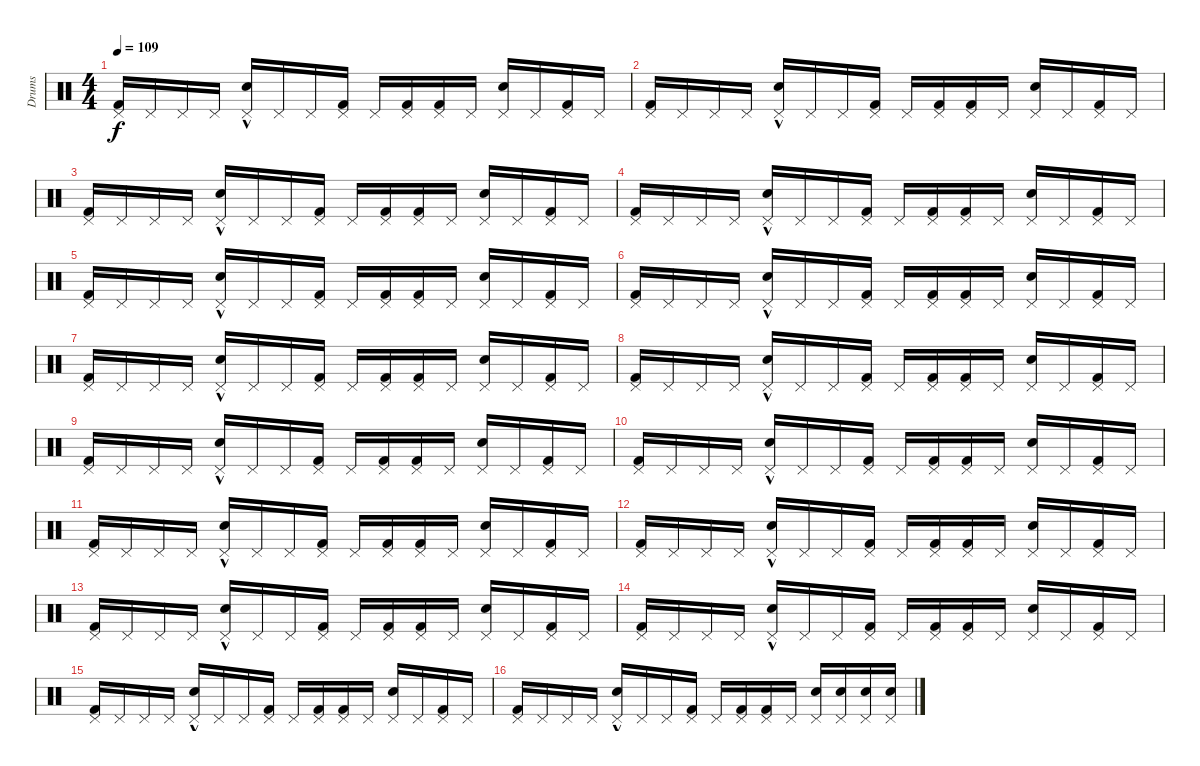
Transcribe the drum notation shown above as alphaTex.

\track ("Drums" "Drums") {instrument percussion}
\staff {score}
\articulation defaults
\ts (4 4)
\tempo 109
\clef neutral
\ks c
("Pedal Hi-Hat (hit)" "Kick (hit) 2").16{dy f} "Pedal Hi-Hat (hit)".16 "Pedal Hi-Hat (hit)".16 "Pedal Hi-Hat (hit)".16 ("Pedal Hi-Hat (hit)" "Snare (hit) 2"{hac}).16 "Pedal Hi-Hat (hit)".16 "Pedal Hi-Hat (hit)".16 ("Pedal Hi-Hat (hit)" "Kick (hit) 2").16 "Pedal Hi-Hat (hit)".16 ("Pedal Hi-Hat (hit)" "Kick (hit) 2").16 ("Pedal Hi-Hat (hit)" "Kick (hit) 2").16 "Pedal Hi-Hat (hit)".16 ("Pedal Hi-Hat (hit)" "Snare (hit) 2").16 "Pedal Hi-Hat (hit)".16 ("Pedal Hi-Hat (hit)" "Kick (hit) 2").16 "Pedal Hi-Hat (hit)".16 |
("Pedal Hi-Hat (hit)" "Kick (hit) 2").16 "Pedal Hi-Hat (hit)".16 "Pedal Hi-Hat (hit)".16 "Pedal Hi-Hat (hit)".16 ("Pedal Hi-Hat (hit)" "Snare (hit) 2"{hac}).16 "Pedal Hi-Hat (hit)".16 "Pedal Hi-Hat (hit)".16 ("Pedal Hi-Hat (hit)" "Kick (hit) 2").16 "Pedal Hi-Hat (hit)".16 ("Pedal Hi-Hat (hit)" "Kick (hit) 2").16 ("Pedal Hi-Hat (hit)" "Kick (hit) 2").16 "Pedal Hi-Hat (hit)".16 ("Pedal Hi-Hat (hit)" "Snare (hit) 2").16 "Pedal Hi-Hat (hit)".16 ("Pedal Hi-Hat (hit)" "Kick (hit) 2").16 "Pedal Hi-Hat (hit)".16 |
("Pedal Hi-Hat (hit)" "Kick (hit) 2").16 "Pedal Hi-Hat (hit)".16 "Pedal Hi-Hat (hit)".16 "Pedal Hi-Hat (hit)".16 ("Pedal Hi-Hat (hit)" "Snare (hit) 2"{hac}).16 "Pedal Hi-Hat (hit)".16 "Pedal Hi-Hat (hit)".16 ("Pedal Hi-Hat (hit)" "Kick (hit) 2").16 "Pedal Hi-Hat (hit)".16 ("Pedal Hi-Hat (hit)" "Kick (hit) 2").16 ("Pedal Hi-Hat (hit)" "Kick (hit) 2").16 "Pedal Hi-Hat (hit)".16 ("Pedal Hi-Hat (hit)" "Snare (hit) 2").16 "Pedal Hi-Hat (hit)".16 ("Pedal Hi-Hat (hit)" "Kick (hit) 2").16 "Pedal Hi-Hat (hit)".16 |
("Pedal Hi-Hat (hit)" "Kick (hit) 2").16 "Pedal Hi-Hat (hit)".16 "Pedal Hi-Hat (hit)".16 "Pedal Hi-Hat (hit)".16 ("Pedal Hi-Hat (hit)" "Snare (hit) 2"{hac}).16 "Pedal Hi-Hat (hit)".16 "Pedal Hi-Hat (hit)".16 ("Pedal Hi-Hat (hit)" "Kick (hit) 2").16 "Pedal Hi-Hat (hit)".16 ("Pedal Hi-Hat (hit)" "Kick (hit) 2").16 ("Pedal Hi-Hat (hit)" "Kick (hit) 2").16 "Pedal Hi-Hat (hit)".16 ("Pedal Hi-Hat (hit)" "Snare (hit) 2").16 "Pedal Hi-Hat (hit)".16 ("Pedal Hi-Hat (hit)" "Kick (hit) 2").16 "Pedal Hi-Hat (hit)".16 |
("Pedal Hi-Hat (hit)" "Kick (hit) 2").16 "Pedal Hi-Hat (hit)".16 "Pedal Hi-Hat (hit)".16 "Pedal Hi-Hat (hit)".16 ("Pedal Hi-Hat (hit)" "Snare (hit) 2"{hac}).16 "Pedal Hi-Hat (hit)".16 "Pedal Hi-Hat (hit)".16 ("Pedal Hi-Hat (hit)" "Kick (hit) 2").16 "Pedal Hi-Hat (hit)".16 ("Pedal Hi-Hat (hit)" "Kick (hit) 2").16 ("Pedal Hi-Hat (hit)" "Kick (hit) 2").16 "Pedal Hi-Hat (hit)".16 ("Pedal Hi-Hat (hit)" "Snare (hit) 2").16 "Pedal Hi-Hat (hit)".16 ("Pedal Hi-Hat (hit)" "Kick (hit) 2").16 "Pedal Hi-Hat (hit)".16 |
("Pedal Hi-Hat (hit)" "Kick (hit) 2").16 "Pedal Hi-Hat (hit)".16 "Pedal Hi-Hat (hit)".16 "Pedal Hi-Hat (hit)".16 ("Pedal Hi-Hat (hit)" "Snare (hit) 2"{hac}).16 "Pedal Hi-Hat (hit)".16 "Pedal Hi-Hat (hit)".16 ("Pedal Hi-Hat (hit)" "Kick (hit) 2").16 "Pedal Hi-Hat (hit)".16 ("Pedal Hi-Hat (hit)" "Kick (hit) 2").16 ("Pedal Hi-Hat (hit)" "Kick (hit) 2").16 "Pedal Hi-Hat (hit)".16 ("Pedal Hi-Hat (hit)" "Snare (hit) 2").16 "Pedal Hi-Hat (hit)".16 ("Pedal Hi-Hat (hit)" "Kick (hit) 2").16 "Pedal Hi-Hat (hit)".16 |
("Pedal Hi-Hat (hit)" "Kick (hit) 2").16 "Pedal Hi-Hat (hit)".16 "Pedal Hi-Hat (hit)".16 "Pedal Hi-Hat (hit)".16 ("Pedal Hi-Hat (hit)" "Snare (hit) 2"{hac}).16 "Pedal Hi-Hat (hit)".16 "Pedal Hi-Hat (hit)".16 ("Pedal Hi-Hat (hit)" "Kick (hit) 2").16 "Pedal Hi-Hat (hit)".16 ("Pedal Hi-Hat (hit)" "Kick (hit) 2").16 ("Pedal Hi-Hat (hit)" "Kick (hit) 2").16 "Pedal Hi-Hat (hit)".16 ("Pedal Hi-Hat (hit)" "Snare (hit) 2").16 "Pedal Hi-Hat (hit)".16 ("Pedal Hi-Hat (hit)" "Kick (hit) 2").16 "Pedal Hi-Hat (hit)".16 |
("Pedal Hi-Hat (hit)" "Kick (hit) 2").16 "Pedal Hi-Hat (hit)".16 "Pedal Hi-Hat (hit)".16 "Pedal Hi-Hat (hit)".16 ("Pedal Hi-Hat (hit)" "Snare (hit) 2"{hac}).16 "Pedal Hi-Hat (hit)".16 "Pedal Hi-Hat (hit)".16 ("Pedal Hi-Hat (hit)" "Kick (hit) 2").16 "Pedal Hi-Hat (hit)".16 ("Pedal Hi-Hat (hit)" "Kick (hit) 2").16 ("Pedal Hi-Hat (hit)" "Kick (hit) 2").16 "Pedal Hi-Hat (hit)".16 ("Pedal Hi-Hat (hit)" "Snare (hit) 2").16 "Pedal Hi-Hat (hit)".16 ("Pedal Hi-Hat (hit)" "Kick (hit) 2").16 "Pedal Hi-Hat (hit)".16 |
("Pedal Hi-Hat (hit)" "Kick (hit) 2").16 "Pedal Hi-Hat (hit)".16 "Pedal Hi-Hat (hit)".16 "Pedal Hi-Hat (hit)".16 ("Pedal Hi-Hat (hit)" "Snare (hit) 2"{hac}).16 "Pedal Hi-Hat (hit)".16 "Pedal Hi-Hat (hit)".16 ("Pedal Hi-Hat (hit)" "Kick (hit) 2").16 "Pedal Hi-Hat (hit)".16 ("Pedal Hi-Hat (hit)" "Kick (hit) 2").16 ("Pedal Hi-Hat (hit)" "Kick (hit) 2").16 "Pedal Hi-Hat (hit)".16 ("Pedal Hi-Hat (hit)" "Snare (hit) 2").16 "Pedal Hi-Hat (hit)".16 ("Pedal Hi-Hat (hit)" "Kick (hit) 2").16 "Pedal Hi-Hat (hit)".16 |
("Pedal Hi-Hat (hit)" "Kick (hit) 2").16 "Pedal Hi-Hat (hit)".16 "Pedal Hi-Hat (hit)".16 "Pedal Hi-Hat (hit)".16 ("Pedal Hi-Hat (hit)" "Snare (hit) 2"{hac}).16 "Pedal Hi-Hat (hit)".16 "Pedal Hi-Hat (hit)".16 ("Pedal Hi-Hat (hit)" "Kick (hit) 2").16 "Pedal Hi-Hat (hit)".16 ("Pedal Hi-Hat (hit)" "Kick (hit) 2").16 ("Pedal Hi-Hat (hit)" "Kick (hit) 2").16 "Pedal Hi-Hat (hit)".16 ("Pedal Hi-Hat (hit)" "Snare (hit) 2").16 "Pedal Hi-Hat (hit)".16 ("Pedal Hi-Hat (hit)" "Kick (hit) 2").16 "Pedal Hi-Hat (hit)".16 |
("Pedal Hi-Hat (hit)" "Kick (hit) 2").16 "Pedal Hi-Hat (hit)".16 "Pedal Hi-Hat (hit)".16 "Pedal Hi-Hat (hit)".16 ("Pedal Hi-Hat (hit)" "Snare (hit) 2"{hac}).16 "Pedal Hi-Hat (hit)".16 "Pedal Hi-Hat (hit)".16 ("Pedal Hi-Hat (hit)" "Kick (hit) 2").16 "Pedal Hi-Hat (hit)".16 ("Pedal Hi-Hat (hit)" "Kick (hit) 2").16 ("Pedal Hi-Hat (hit)" "Kick (hit) 2").16 "Pedal Hi-Hat (hit)".16 ("Pedal Hi-Hat (hit)" "Snare (hit) 2").16 "Pedal Hi-Hat (hit)".16 ("Pedal Hi-Hat (hit)" "Kick (hit) 2").16 "Pedal Hi-Hat (hit)".16 |
("Pedal Hi-Hat (hit)" "Kick (hit) 2").16 "Pedal Hi-Hat (hit)".16 "Pedal Hi-Hat (hit)".16 "Pedal Hi-Hat (hit)".16 ("Pedal Hi-Hat (hit)" "Snare (hit) 2"{hac}).16 "Pedal Hi-Hat (hit)".16 "Pedal Hi-Hat (hit)".16 ("Pedal Hi-Hat (hit)" "Kick (hit) 2").16 "Pedal Hi-Hat (hit)".16 ("Pedal Hi-Hat (hit)" "Kick (hit) 2").16 ("Pedal Hi-Hat (hit)" "Kick (hit) 2").16 "Pedal Hi-Hat (hit)".16 ("Pedal Hi-Hat (hit)" "Snare (hit) 2").16 "Pedal Hi-Hat (hit)".16 ("Pedal Hi-Hat (hit)" "Kick (hit) 2").16 "Pedal Hi-Hat (hit)".16 |
("Pedal Hi-Hat (hit)" "Kick (hit) 2").16 "Pedal Hi-Hat (hit)".16 "Pedal Hi-Hat (hit)".16 "Pedal Hi-Hat (hit)".16 ("Pedal Hi-Hat (hit)" "Snare (hit) 2"{hac}).16 "Pedal Hi-Hat (hit)".16 "Pedal Hi-Hat (hit)".16 ("Pedal Hi-Hat (hit)" "Kick (hit) 2").16 "Pedal Hi-Hat (hit)".16 ("Pedal Hi-Hat (hit)" "Kick (hit) 2").16 ("Pedal Hi-Hat (hit)" "Kick (hit) 2").16 "Pedal Hi-Hat (hit)".16 ("Pedal Hi-Hat (hit)" "Snare (hit) 2").16 "Pedal Hi-Hat (hit)".16 ("Pedal Hi-Hat (hit)" "Kick (hit) 2").16 "Pedal Hi-Hat (hit)".16 |
("Pedal Hi-Hat (hit)" "Kick (hit) 2").16 "Pedal Hi-Hat (hit)".16 "Pedal Hi-Hat (hit)".16 "Pedal Hi-Hat (hit)".16 ("Pedal Hi-Hat (hit)" "Snare (hit) 2"{hac}).16 "Pedal Hi-Hat (hit)".16 "Pedal Hi-Hat (hit)".16 ("Pedal Hi-Hat (hit)" "Kick (hit) 2").16 "Pedal Hi-Hat (hit)".16 ("Pedal Hi-Hat (hit)" "Kick (hit) 2").16 ("Pedal Hi-Hat (hit)" "Kick (hit) 2").16 "Pedal Hi-Hat (hit)".16 ("Pedal Hi-Hat (hit)" "Snare (hit) 2").16 "Pedal Hi-Hat (hit)".16 ("Pedal Hi-Hat (hit)" "Kick (hit) 2").16 "Pedal Hi-Hat (hit)".16 |
("Pedal Hi-Hat (hit)" "Kick (hit) 2").16 "Pedal Hi-Hat (hit)".16 "Pedal Hi-Hat (hit)".16 "Pedal Hi-Hat (hit)".16 ("Pedal Hi-Hat (hit)" "Snare (hit) 2"{hac}).16 "Pedal Hi-Hat (hit)".16 "Pedal Hi-Hat (hit)".16 ("Pedal Hi-Hat (hit)" "Kick (hit) 2").16 "Pedal Hi-Hat (hit)".16 ("Pedal Hi-Hat (hit)" "Kick (hit) 2").16 ("Pedal Hi-Hat (hit)" "Kick (hit) 2").16 "Pedal Hi-Hat (hit)".16 ("Pedal Hi-Hat (hit)" "Snare (hit) 2").16 "Pedal Hi-Hat (hit)".16 ("Pedal Hi-Hat (hit)" "Kick (hit) 2").16 "Pedal Hi-Hat (hit)".16 |
("Pedal Hi-Hat (hit)" "Kick (hit) 2").16 "Pedal Hi-Hat (hit)".16 "Pedal Hi-Hat (hit)".16 "Pedal Hi-Hat (hit)".16 ("Pedal Hi-Hat (hit)" "Snare (hit) 2"{hac}).16 "Pedal Hi-Hat (hit)".16 "Pedal Hi-Hat (hit)".16 ("Pedal Hi-Hat (hit)" "Kick (hit) 2").16 "Pedal Hi-Hat (hit)".16 ("Pedal Hi-Hat (hit)" "Kick (hit) 2").16 ("Pedal Hi-Hat (hit)" "Kick (hit) 2").16 "Pedal Hi-Hat (hit)".16 ("Snare (hit) 2" "Pedal Hi-Hat (hit)").16 ("Snare (hit) 2" "Pedal Hi-Hat (hit)").16 ("Snare (hit) 2" "Pedal Hi-Hat (hit)").16 ("Snare (hit) 2" "Pedal Hi-Hat (hit)").16
